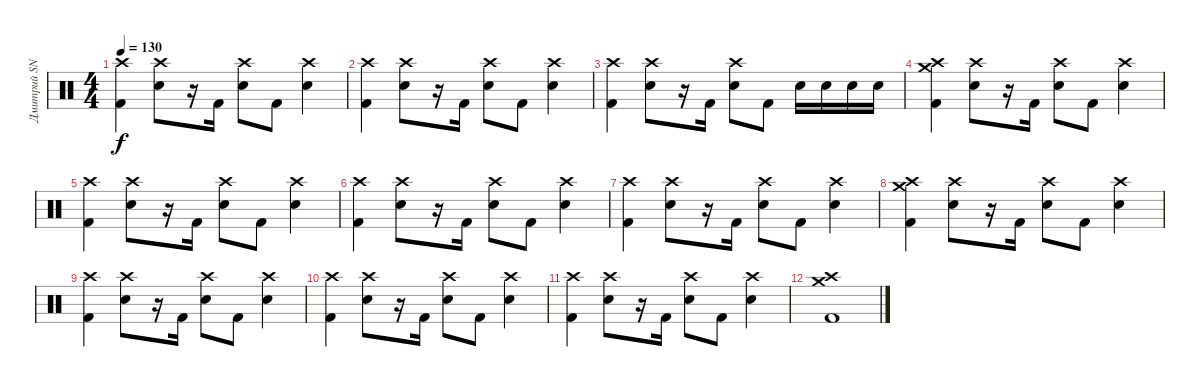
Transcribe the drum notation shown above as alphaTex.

\track ("Дмитрий SNAKE Хакимов" "Дмитрий SN") {instrument percussion}
\staff {score}
\articulation defaults
\ts (4 4)
\tempo 130
\clef neutral
\ks c
("Crash high (hit)" "Kick (hit) 2").4{dy f} ("Crash high (hit)" "Snare (hit) 2").8 r.16 "Kick (hit) 2".16 ("Crash high (hit)" "Snare (hit) 2").8 "Kick (hit) 2".8 ("Crash high (hit)" "Snare (hit) 2").4 |
("Crash high (hit)" "Kick (hit) 2").4 ("Crash high (hit)" "Snare (hit) 2").8 r.16 "Kick (hit) 2".16 ("Crash high (hit)" "Snare (hit) 2").8 "Kick (hit) 2".8 ("Crash high (hit)" "Snare (hit) 2").4 |
("Crash high (hit)" "Kick (hit) 2").4 ("Crash high (hit)" "Snare (hit) 2").8 r.16 "Kick (hit) 2".16 ("Crash high (hit)" "Snare (hit) 2").8 "Kick (hit) 2".8 "Snare (hit) 2".16 "Snare (hit) 2".16 "Snare (hit) 2".16 "Snare (hit) 2".16 |
("Crash high (hit)" "Crash medium (hit)" "Kick (hit) 2").4 ("Crash high (hit)" "Snare (hit) 2").8 r.16 "Kick (hit) 2".16 ("Crash high (hit)" "Snare (hit) 2").8 "Kick (hit) 2".8 ("Crash high (hit)" "Snare (hit) 2").4 |
("Crash high (hit)" "Kick (hit) 2").4 ("Crash high (hit)" "Snare (hit) 2").8 r.16 "Kick (hit) 2".16 ("Crash high (hit)" "Snare (hit) 2").8 "Kick (hit) 2".8 ("Crash high (hit)" "Snare (hit) 2").4 |
("Crash high (hit)" "Kick (hit) 2").4 ("Crash high (hit)" "Snare (hit) 2").8 r.16 "Kick (hit) 2".16 ("Crash high (hit)" "Snare (hit) 2").8 "Kick (hit) 2".8 ("Crash high (hit)" "Snare (hit) 2").4 |
("Crash high (hit)" "Kick (hit) 2").4 ("Crash high (hit)" "Snare (hit) 2").8 r.16 "Kick (hit) 2".16 ("Crash high (hit)" "Snare (hit) 2").8 "Kick (hit) 2".8 ("Crash high (hit)" "Snare (hit) 2").4 |
("Crash high (hit)" "Crash medium (hit)" "Kick (hit) 2").4 ("Crash high (hit)" "Snare (hit) 2").8 r.16 "Kick (hit) 2".16 ("Crash high (hit)" "Snare (hit) 2").8 "Kick (hit) 2".8 ("Crash high (hit)" "Snare (hit) 2").4 |
("Crash high (hit)" "Kick (hit) 2").4 ("Crash high (hit)" "Snare (hit) 2").8 r.16 "Kick (hit) 2".16 ("Crash high (hit)" "Snare (hit) 2").8 "Kick (hit) 2".8 ("Crash high (hit)" "Snare (hit) 2").4 |
("Crash high (hit)" "Kick (hit) 2").4 ("Crash high (hit)" "Snare (hit) 2").8 r.16 "Kick (hit) 2".16 ("Crash high (hit)" "Snare (hit) 2").8 "Kick (hit) 2".8 ("Crash high (hit)" "Snare (hit) 2").4 |
("Crash high (hit)" "Kick (hit) 2").4 ("Crash high (hit)" "Snare (hit) 2").8 r.16 "Kick (hit) 2".16 ("Crash high (hit)" "Snare (hit) 2").8 "Kick (hit) 2".8 ("Crash high (hit)" "Snare (hit) 2").4 |
("Crash high (hit)" "Crash medium (hit)" "Kick (hit) 2").1
